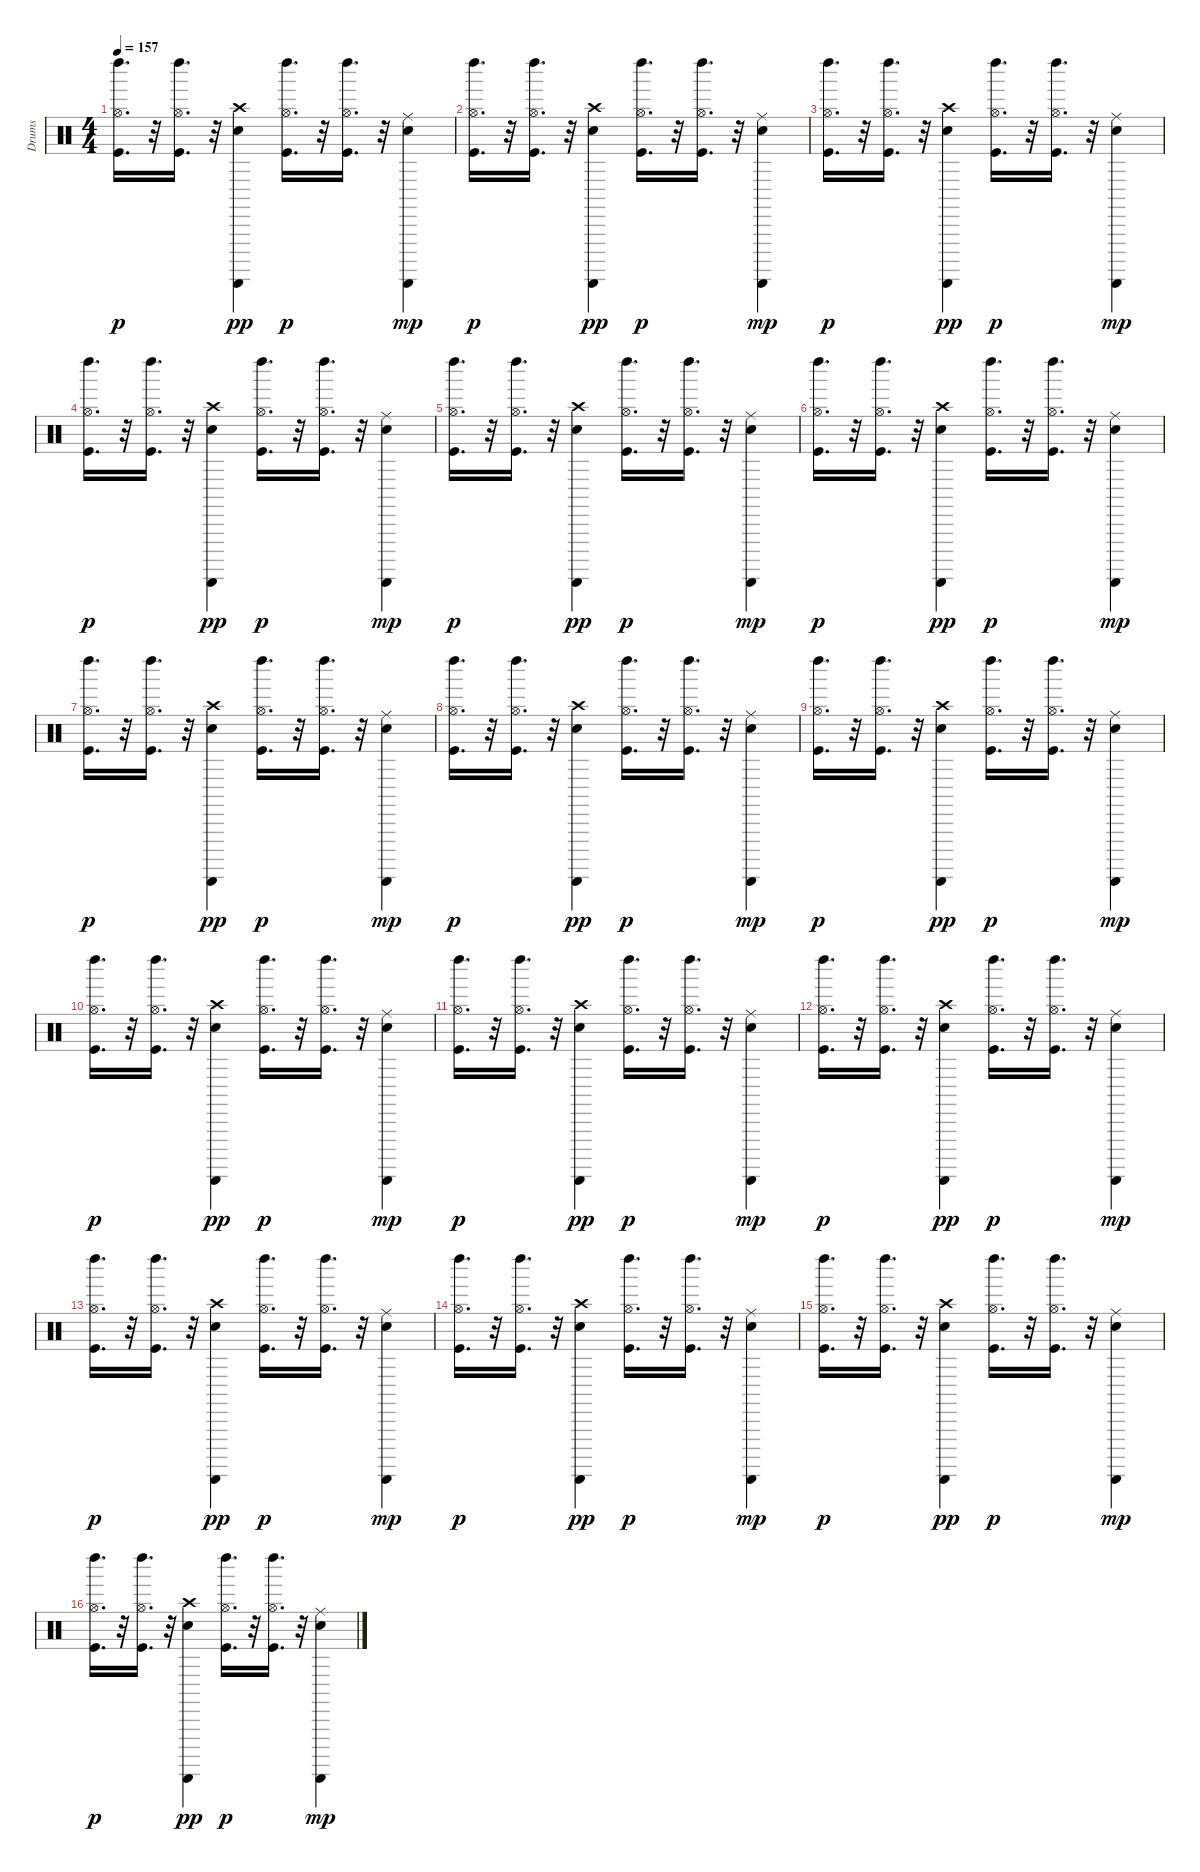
\track ("Drums               " "Drums     ") {instrument percussion}
\staff {score}
\articulation defaults
\ts (4 4)
\tempo 157
\clef neutral
\ks c
("Left Maraca (hit)" "Kick (hit)" "Hi-Hat (open)").16{d dy p} r.32 ("Left Maraca (hit)" "Kick (hit)" "Hi-Hat (open)").16{d} r.32 ("Hand Clap (hit)" "Guiro (scrap-return)" "Crash high (hit)").4{dy pp} ("Left Maraca (hit)" "Kick (hit)" "Hi-Hat (open)").16{d dy p} r.32 ("Left Maraca (hit)" "Kick (hit)" "Hi-Hat (open)").16{d} r.32 ("Hand Clap (hit)" "Guiro (scrap-return)" "Ride (middle)").4{dy mp} |
("Left Maraca (hit)" "Kick (hit)" "Hi-Hat (open)").16{d dy p} r.32 ("Left Maraca (hit)" "Kick (hit)" "Hi-Hat (open)").16{d} r.32 ("Hand Clap (hit)" "Guiro (scrap-return)" "Crash high (hit)").4{dy pp} ("Left Maraca (hit)" "Kick (hit)" "Hi-Hat (open)").16{d dy p} r.32 ("Left Maraca (hit)" "Kick (hit)" "Hi-Hat (open)").16{d} r.32 ("Hand Clap (hit)" "Guiro (scrap-return)" "Ride (middle)").4{dy mp} |
("Left Maraca (hit)" "Kick (hit)" "Hi-Hat (open)").16{d dy p} r.32 ("Left Maraca (hit)" "Kick (hit)" "Hi-Hat (open)").16{d} r.32 ("Hand Clap (hit)" "Guiro (scrap-return)" "Crash high (hit)").4{dy pp} ("Left Maraca (hit)" "Kick (hit)" "Hi-Hat (open)").16{d dy p} r.32 ("Left Maraca (hit)" "Kick (hit)" "Hi-Hat (open)").16{d} r.32 ("Hand Clap (hit)" "Guiro (scrap-return)" "Ride (middle)").4{dy mp} |
("Left Maraca (hit)" "Kick (hit)" "Hi-Hat (open)").16{d dy p} r.32 ("Left Maraca (hit)" "Kick (hit)" "Hi-Hat (open)").16{d} r.32 ("Hand Clap (hit)" "Guiro (scrap-return)" "Crash high (hit)").4{dy pp} ("Left Maraca (hit)" "Kick (hit)" "Hi-Hat (open)").16{d dy p} r.32 ("Left Maraca (hit)" "Kick (hit)" "Hi-Hat (open)").16{d} r.32 ("Hand Clap (hit)" "Guiro (scrap-return)" "Ride (middle)").4{dy mp} |
("Left Maraca (hit)" "Kick (hit)" "Hi-Hat (open)").16{d dy p} r.32 ("Left Maraca (hit)" "Kick (hit)" "Hi-Hat (open)").16{d} r.32 ("Hand Clap (hit)" "Guiro (scrap-return)" "Crash high (hit)").4{dy pp} ("Left Maraca (hit)" "Kick (hit)" "Hi-Hat (open)").16{d dy p} r.32 ("Left Maraca (hit)" "Kick (hit)" "Hi-Hat (open)").16{d} r.32 ("Hand Clap (hit)" "Guiro (scrap-return)" "Ride (middle)").4{dy mp} |
("Left Maraca (hit)" "Kick (hit)" "Hi-Hat (open)").16{d dy p} r.32 ("Left Maraca (hit)" "Kick (hit)" "Hi-Hat (open)").16{d} r.32 ("Hand Clap (hit)" "Guiro (scrap-return)" "Crash high (hit)").4{dy pp} ("Left Maraca (hit)" "Kick (hit)" "Hi-Hat (open)").16{d dy p} r.32 ("Left Maraca (hit)" "Kick (hit)" "Hi-Hat (open)").16{d} r.32 ("Hand Clap (hit)" "Guiro (scrap-return)" "Ride (middle)").4{dy mp} |
("Left Maraca (hit)" "Kick (hit)" "Hi-Hat (open)").16{d dy p} r.32 ("Left Maraca (hit)" "Kick (hit)" "Hi-Hat (open)").16{d} r.32 ("Hand Clap (hit)" "Guiro (scrap-return)" "Crash high (hit)").4{dy pp} ("Left Maraca (hit)" "Kick (hit)" "Hi-Hat (open)").16{d dy p} r.32 ("Left Maraca (hit)" "Kick (hit)" "Hi-Hat (open)").16{d} r.32 ("Hand Clap (hit)" "Guiro (scrap-return)" "Ride (middle)").4{dy mp} |
("Left Maraca (hit)" "Kick (hit)" "Hi-Hat (open)").16{d dy p} r.32 ("Left Maraca (hit)" "Kick (hit)" "Hi-Hat (open)").16{d} r.32 ("Hand Clap (hit)" "Guiro (scrap-return)" "Crash high (hit)").4{dy pp} ("Left Maraca (hit)" "Kick (hit)" "Hi-Hat (open)").16{d dy p} r.32 ("Left Maraca (hit)" "Kick (hit)" "Hi-Hat (open)").16{d} r.32 ("Hand Clap (hit)" "Guiro (scrap-return)" "Ride (middle)").4{dy mp} |
("Left Maraca (hit)" "Kick (hit)" "Hi-Hat (open)").16{d dy p} r.32 ("Left Maraca (hit)" "Kick (hit)" "Hi-Hat (open)").16{d} r.32 ("Hand Clap (hit)" "Guiro (scrap-return)" "Crash high (hit)").4{dy pp} ("Left Maraca (hit)" "Kick (hit)" "Hi-Hat (open)").16{d dy p} r.32 ("Left Maraca (hit)" "Kick (hit)" "Hi-Hat (open)").16{d} r.32 ("Hand Clap (hit)" "Guiro (scrap-return)" "Ride (middle)").4{dy mp} |
("Left Maraca (hit)" "Kick (hit)" "Hi-Hat (open)").16{d dy p} r.32 ("Left Maraca (hit)" "Kick (hit)" "Hi-Hat (open)").16{d} r.32 ("Hand Clap (hit)" "Guiro (scrap-return)" "Crash high (hit)").4{dy pp} ("Left Maraca (hit)" "Kick (hit)" "Hi-Hat (open)").16{d dy p} r.32 ("Left Maraca (hit)" "Kick (hit)" "Hi-Hat (open)").16{d} r.32 ("Hand Clap (hit)" "Guiro (scrap-return)" "Ride (middle)").4{dy mp} |
("Left Maraca (hit)" "Kick (hit)" "Hi-Hat (open)").16{d dy p} r.32 ("Left Maraca (hit)" "Kick (hit)" "Hi-Hat (open)").16{d} r.32 ("Hand Clap (hit)" "Guiro (scrap-return)" "Crash high (hit)").4{dy pp} ("Left Maraca (hit)" "Kick (hit)" "Hi-Hat (open)").16{d dy p} r.32 ("Left Maraca (hit)" "Kick (hit)" "Hi-Hat (open)").16{d} r.32 ("Hand Clap (hit)" "Guiro (scrap-return)" "Ride (middle)").4{dy mp} |
("Left Maraca (hit)" "Kick (hit)" "Hi-Hat (open)").16{d dy p} r.32 ("Left Maraca (hit)" "Kick (hit)" "Hi-Hat (open)").16{d} r.32 ("Hand Clap (hit)" "Guiro (scrap-return)" "Crash high (hit)").4{dy pp} ("Left Maraca (hit)" "Kick (hit)" "Hi-Hat (open)").16{d dy p} r.32 ("Left Maraca (hit)" "Kick (hit)" "Hi-Hat (open)").16{d} r.32 ("Hand Clap (hit)" "Guiro (scrap-return)" "Ride (middle)").4{dy mp} |
("Left Maraca (hit)" "Kick (hit)" "Hi-Hat (open)").16{d dy p} r.32 ("Left Maraca (hit)" "Kick (hit)" "Hi-Hat (open)").16{d} r.32 ("Hand Clap (hit)" "Guiro (scrap-return)" "Crash high (hit)").4{dy pp} ("Left Maraca (hit)" "Kick (hit)" "Hi-Hat (open)").16{d dy p} r.32 ("Left Maraca (hit)" "Kick (hit)" "Hi-Hat (open)").16{d} r.32 ("Hand Clap (hit)" "Guiro (scrap-return)" "Ride (middle)").4{dy mp} |
("Left Maraca (hit)" "Kick (hit)" "Hi-Hat (open)").16{d dy p} r.32 ("Left Maraca (hit)" "Kick (hit)" "Hi-Hat (open)").16{d} r.32 ("Hand Clap (hit)" "Guiro (scrap-return)" "Crash high (hit)").4{dy pp} ("Left Maraca (hit)" "Kick (hit)" "Hi-Hat (open)").16{d dy p} r.32 ("Left Maraca (hit)" "Kick (hit)" "Hi-Hat (open)").16{d} r.32 ("Hand Clap (hit)" "Guiro (scrap-return)" "Ride (middle)").4{dy mp} |
("Left Maraca (hit)" "Kick (hit)" "Hi-Hat (open)").16{d dy p} r.32 ("Left Maraca (hit)" "Kick (hit)" "Hi-Hat (open)").16{d} r.32 ("Hand Clap (hit)" "Guiro (scrap-return)" "Crash high (hit)").4{dy pp} ("Left Maraca (hit)" "Kick (hit)" "Hi-Hat (open)").16{d dy p} r.32 ("Left Maraca (hit)" "Kick (hit)" "Hi-Hat (open)").16{d} r.32 ("Hand Clap (hit)" "Guiro (scrap-return)" "Ride (middle)").4{dy mp} |
("Left Maraca (hit)" "Kick (hit)" "Hi-Hat (open)").16{d dy p volume 12} r.32 ("Left Maraca (hit)" "Kick (hit)" "Hi-Hat (open)").16{d volume 12} r.32 ("Hand Clap (hit)" "Guiro (scrap-return)" "Crash high (hit)").4{dy pp volume 12} ("Left Maraca (hit)" "Kick (hit)" "Hi-Hat (open)").16{d dy p volume 11} r.32 ("Left Maraca (hit)" "Kick (hit)" "Hi-Hat (open)").16{d volume 11} r.32 ("Hand Clap (hit)" "Guiro (scrap-return)" "Ride (middle)").4{dy mp volume 11}
